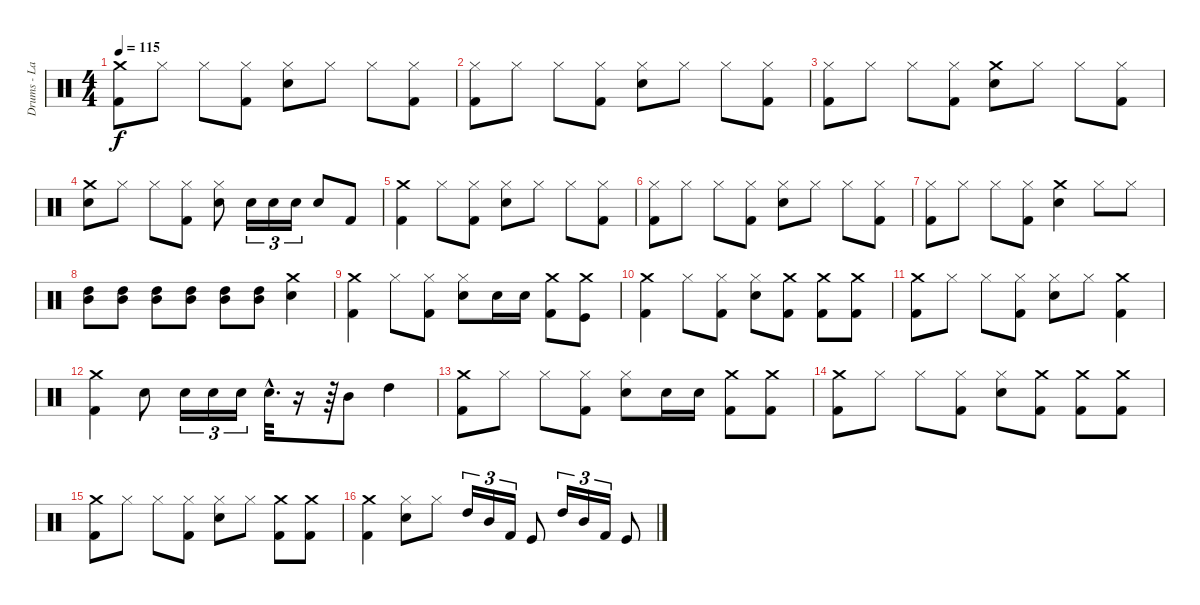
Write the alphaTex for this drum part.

\track ("Drums - Lars" "Drums - La") {instrument percussion}
\staff {score}
\articulation defaults
\ts (4 4)
\tempo 115
\clef neutral
\ks c
("Kick (hit) 2" "Crash medium (hit)").8{dy f} "Hi-Hat (closed)".8 "Hi-Hat (closed)".8 ("Kick (hit) 2" "Hi-Hat (closed)").8 ("Snare (hit) 2" "Hi-Hat (closed)").8 "Hi-Hat (closed)".8 "Hi-Hat (closed)".8 ("Kick (hit) 2" "Hi-Hat (closed)").8 |
("Hi-Hat (closed)" "Kick (hit) 2").8 "Hi-Hat (closed)".8 "Hi-Hat (closed)".8 ("Kick (hit) 2" "Hi-Hat (closed)").8 ("Snare (hit) 2" "Hi-Hat (closed)").8 "Hi-Hat (closed)".8 "Hi-Hat (closed)".8 ("Kick (hit) 2" "Hi-Hat (closed)").8 |
("Hi-Hat (closed)" "Kick (hit) 2").8 "Hi-Hat (closed)".8 "Hi-Hat (closed)".8 ("Kick (hit) 2" "Hi-Hat (closed)").8 ("Crash medium (hit)" "Snare (hit) 2").8 "Hi-Hat (closed)".8 "Hi-Hat (closed)".8 ("Kick (hit) 2" "Hi-Hat (closed)").8 |
("Snare (hit) 2" "Crash medium (hit)").8 "Hi-Hat (closed)".8 "Hi-Hat (closed)".8 ("Kick (hit) 2" "Hi-Hat (closed)").8 ("Snare (hit) 2" "Hi-Hat (closed)").8 "Snare (hit) 2".16{tu (3 2)} "Snare (hit) 2".16{tu (3 2)} "Snare (hit) 2".16{tu (3 2)} "Snare (hit) 2".8 "Kick (hit) 2".8 |
("Kick (hit) 2" "Crash medium (hit)").4 "Hi-Hat (closed)".8 ("Kick (hit) 2" "Hi-Hat (closed)").8 ("Snare (hit) 2" "Hi-Hat (closed)").8 "Hi-Hat (closed)".8 "Hi-Hat (closed)".8 ("Kick (hit) 2" "Hi-Hat (closed)").8 |
("Kick (hit) 2" "Hi-Hat (closed)").8 "Hi-Hat (closed)".8 "Hi-Hat (closed)".8 ("Kick (hit) 2" "Hi-Hat (closed)").8 ("Snare (hit) 2" "Hi-Hat (closed)").8 "Hi-Hat (closed)".8 "Hi-Hat (closed)".8 ("Kick (hit) 2" "Hi-Hat (closed)").8 |
("Hi-Hat (closed)" "Kick (hit) 2").8 "Hi-Hat (closed)".8 "Hi-Hat (closed)".8 ("Kick (hit) 2" "Hi-Hat (closed)").8 ("Crash medium (hit)" "Snare (hit) 2").4 "Hi-Hat (closed)".8 "Hi-Hat (closed)".8 |
("High Tom (hit)" "Mid Tom (hit)").8 ("Mid Tom (hit)" "High Tom (hit)").8 ("Mid Tom (hit)" "High Tom (hit)").8 ("Mid Tom (hit)" "High Tom (hit)").8 ("Mid Tom (hit)" "High Tom (hit)").8 ("Mid Tom (hit)" "High Tom (hit)").8 ("Snare (hit) 2" "Crash medium (hit)").4 |
("Crash medium (hit)" "Kick (hit) 2").4 "Hi-Hat (closed)".8 ("Kick (hit) 2" "Hi-Hat (closed)").8 ("Snare (hit) 2" "Hi-Hat (closed)").8 "Snare (hit) 2".16 "Snare (hit) 2".16 ("Crash medium (hit)" "Kick (hit) 2").8 ("Crash medium (hit)" "Kick (hit)").8 |
("Kick (hit) 2" "Crash medium (hit)").4 "Hi-Hat (closed)".8 ("Kick (hit) 2" "Hi-Hat (closed)").8 ("Hi-Hat (closed)" "Snare (hit) 2").8 ("Kick (hit) 2" "Crash medium (hit)").8 ("Kick (hit) 2" "Crash medium (hit)").8 ("Kick (hit) 2" "Crash medium (hit)").8 |
("Kick (hit) 2" "Crash medium (hit)").8 "Hi-Hat (closed)".8 "Hi-Hat (closed)".8 ("Kick (hit) 2" "Hi-Hat (closed)").8 ("Snare (hit) 2" "Hi-Hat (closed)").8 "Hi-Hat (closed)".8 ("Kick (hit) 2" "Crash medium (hit)").4 |
("Kick (hit) 2" "Crash medium (hit)").4 "Snare (hit) 2".8 "Snare (hit) 2".16{tu (3 2)} "Snare (hit) 2".16{tu (3 2)} "Snare (hit) 2".16{tu (3 2)} "Snare (hit) 2"{hac}.32{d} r.16 r.64 "Mid Tom (hit)".8 "High Tom (hit)".4 |
("Kick (hit) 2" "Crash medium (hit)").8 "Hi-Hat (closed)".8 "Hi-Hat (closed)".8 ("Kick (hit) 2" "Hi-Hat (closed)").8 ("Snare (hit) 2" "Hi-Hat (closed)").8 "Snare (hit) 2".16 "Snare (hit) 2".16 ("Kick (hit) 2" "Crash medium (hit)").8 ("Kick (hit) 2" "Crash medium (hit)").8 |
("Kick (hit) 2" "Crash medium (hit)").8 "Hi-Hat (closed)".8 "Hi-Hat (closed)".8 ("Kick (hit) 2" "Hi-Hat (closed)").8 ("Snare (hit) 2" "Hi-Hat (closed)").8 ("Kick (hit) 2" "Crash medium (hit)").8 ("Kick (hit) 2" "Crash medium (hit)").8 ("Kick (hit) 2" "Crash medium (hit)").8 |
("Kick (hit) 2" "Crash medium (hit)").8 "Hi-Hat (closed)".8 "Hi-Hat (closed)".8 ("Kick (hit) 2" "Hi-Hat (closed)").8 ("Snare (hit) 2" "Hi-Hat (closed)").8 "Hi-Hat (closed)".8 ("Kick (hit) 2" "Crash medium (hit)").8 ("Kick (hit) 2" "Crash medium (hit)").8 |
("Kick (hit) 2" "Crash medium (hit)").4 ("Hi-Hat (closed)" "Snare (hit) 2").8 "Hi-Hat (closed)".8 "High Tom (hit)".16{tu (3 2)} "Mid Tom (hit)".16{tu (3 2)} "Kick (hit) 2".16{tu (3 2)} "Kick (hit)".8 "High Tom (hit)".16{tu (3 2)} "Mid Tom (hit)".16{tu (3 2)} "Kick (hit) 2".16{tu (3 2)} "Kick (hit)".8
